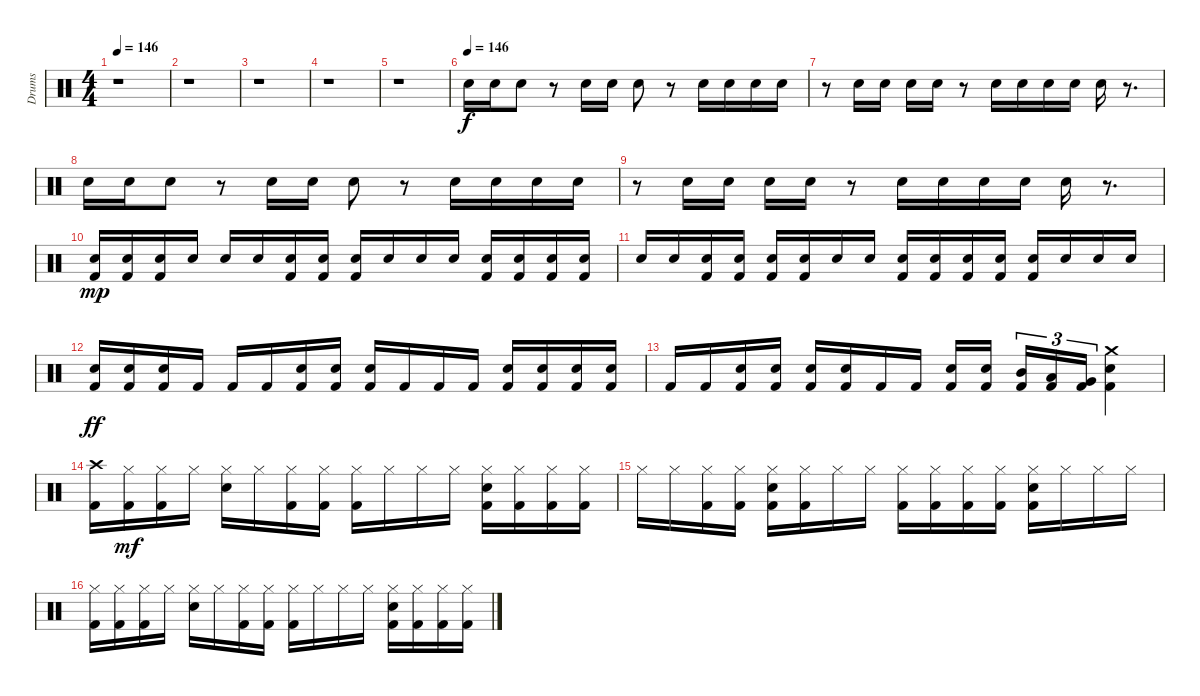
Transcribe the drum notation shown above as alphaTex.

\track ("Drums" "Drums") {instrument percussion}
\staff {score}
\articulation defaults
\ts (4 4)
\tempo 146
\clef neutral
\ks c
r.1{dy f} |
r.1 |
r.1 |
r.1 |
r.1 |
\tempo (146)
"Electric Snare (hit)".16 "Electric Snare (hit)".16 "Electric Snare (hit)".8 r.8 "Electric Snare (hit)".16 "Electric Snare (hit)".16 "Electric Snare (hit)".8 r.8 "Electric Snare (hit)".16 "Electric Snare (hit)".16 "Electric Snare (hit)".16 "Electric Snare (hit)".16 |
r.8 "Electric Snare (hit)".16 "Electric Snare (hit)".16 "Electric Snare (hit)".16 "Electric Snare (hit)".16 r.8 "Electric Snare (hit)".16 "Electric Snare (hit)".16 "Electric Snare (hit)".16 "Electric Snare (hit)".16 "Electric Snare (hit)".16 r.8{d} |
"Electric Snare (hit)".16 "Electric Snare (hit)".16 "Electric Snare (hit)".8 r.8 "Electric Snare (hit)".16 "Electric Snare (hit)".16 "Electric Snare (hit)".8 r.8 "Electric Snare (hit)".16 "Electric Snare (hit)".16 "Electric Snare (hit)".16 "Electric Snare (hit)".16 |
r.8 "Electric Snare (hit)".16 "Electric Snare (hit)".16 "Electric Snare (hit)".16 "Electric Snare (hit)".16 r.8 "Electric Snare (hit)".16 "Electric Snare (hit)".16 "Electric Snare (hit)".16 "Electric Snare (hit)".16 "Electric Snare (hit)".16 r.8{d} |
("Kick (hit) 2" "Snare (hit) 2").16{dy mp} ("Kick (hit) 2" "Snare (hit) 2").16 ("Kick (hit) 2" "Snare (hit) 2").16 "Snare (hit) 2".16 "Snare (hit) 2".16 "Snare (hit) 2".16 ("Kick (hit) 2" "Snare (hit) 2").16 ("Kick (hit) 2" "Snare (hit) 2").16 ("Kick (hit) 2" "Snare (hit) 2").16 "Snare (hit) 2".16 "Snare (hit) 2".16 "Snare (hit) 2".16 ("Kick (hit) 2" "Snare (hit) 2").16 ("Kick (hit) 2" "Snare (hit) 2").16 ("Kick (hit) 2" "Snare (hit) 2").16 ("Kick (hit) 2" "Snare (hit) 2").16 |
"Snare (hit) 2".16 "Snare (hit) 2".16 ("Kick (hit) 2" "Snare (hit) 2").16 ("Kick (hit) 2" "Snare (hit) 2").16 ("Kick (hit) 2" "Snare (hit) 2").16 ("Kick (hit) 2" "Snare (hit) 2").16 "Snare (hit) 2".16 "Snare (hit) 2".16 ("Kick (hit) 2" "Snare (hit) 2").16 ("Kick (hit) 2" "Snare (hit) 2").16 ("Kick (hit) 2" "Snare (hit) 2").16 ("Kick (hit) 2" "Snare (hit) 2").16 ("Kick (hit) 2" "Snare (hit) 2").16 "Snare (hit) 2".16 "Snare (hit) 2".16 "Snare (hit) 2".16 |
("Kick (hit) 2" "Electric Snare (hit)").16{dy ff} ("Kick (hit) 2" "Electric Snare (hit)").16 ("Kick (hit) 2" "Electric Snare (hit)").16 "Kick (hit) 2".16 "Kick (hit) 2".16 "Kick (hit) 2".16 ("Kick (hit) 2" "Electric Snare (hit)").16 ("Kick (hit) 2" "Electric Snare (hit)").16 ("Kick (hit) 2" "Electric Snare (hit)").16 "Kick (hit) 2".16 "Kick (hit) 2".16 "Kick (hit) 2".16 ("Kick (hit) 2" "Electric Snare (hit)").16 ("Kick (hit) 2" "Electric Snare (hit)").16 ("Kick (hit) 2" "Electric Snare (hit)").16 ("Kick (hit) 2" "Electric Snare (hit)").16 |
"Kick (hit) 2".16 "Kick (hit) 2".16 ("Kick (hit) 2" "Electric Snare (hit)").16 ("Kick (hit) 2" "Electric Snare (hit)").16 ("Kick (hit) 2" "Electric Snare (hit)").16 ("Kick (hit) 2" "Electric Snare (hit)").16 "Kick (hit) 2".16 "Kick (hit) 2".16 ("Kick (hit) 2" "Electric Snare (hit)").16 ("Kick (hit) 2" "Electric Snare (hit)").16 ("Kick (hit) 2" "Mid Tom (hit)").16{tu (3 2)} ("Kick (hit) 2" "Low Tom (hit)").16{tu (3 2)} ("Kick (hit) 2" "Very Low Tom (hit)").16{tu (3 2)} ("Kick (hit) 2" "Electric Snare (hit)" "Crash medium (hit)").4 |
("Kick (hit) 2" "Crash high (hit)").16 ("Kick (hit) 2" "Hi-Hat (closed)").16{dy mf} ("Kick (hit) 2" "Hi-Hat (closed)").16 "Hi-Hat (closed)".16 ("Electric Snare (hit)" "Hi-Hat (closed)").16 "Hi-Hat (closed)".16 ("Kick (hit) 2" "Hi-Hat (closed)").16 ("Kick (hit) 2" "Hi-Hat (closed)").16 ("Kick (hit) 2" "Hi-Hat (closed)").16 "Hi-Hat (closed)".16 "Hi-Hat (closed)".16 "Hi-Hat (closed)".16 ("Kick (hit) 2" "Electric Snare (hit)" "Hi-Hat (closed)").16 ("Kick (hit) 2" "Hi-Hat (closed)").16 ("Kick (hit) 2" "Hi-Hat (closed)").16 ("Kick (hit) 2" "Hi-Hat (closed)").16 |
"Hi-Hat (closed)".16 "Hi-Hat (closed)".16 ("Kick (hit) 2" "Hi-Hat (closed)").16 ("Kick (hit) 2" "Hi-Hat (closed)").16 ("Kick (hit) 2" "Electric Snare (hit)" "Hi-Hat (closed)").16 ("Kick (hit) 2" "Hi-Hat (closed)").16 "Hi-Hat (closed)".16 "Hi-Hat (closed)".16 ("Kick (hit) 2" "Hi-Hat (closed)").16 ("Kick (hit) 2" "Hi-Hat (closed)").16 ("Kick (hit) 2" "Hi-Hat (closed)").16 ("Kick (hit) 2" "Hi-Hat (closed)").16 ("Kick (hit) 2" "Electric Snare (hit)" "Hi-Hat (closed)").16 "Hi-Hat (closed)".16 "Hi-Hat (closed)".16 "Hi-Hat (closed)".16 |
("Kick (hit) 2" "Hi-Hat (closed)").16 ("Kick (hit) 2" "Hi-Hat (closed)").16 ("Kick (hit) 2" "Hi-Hat (closed)").16 "Hi-Hat (closed)".16 ("Electric Snare (hit)" "Hi-Hat (closed)").16 "Hi-Hat (closed)".16 ("Kick (hit) 2" "Hi-Hat (closed)").16 ("Kick (hit) 2" "Hi-Hat (closed)").16 ("Kick (hit) 2" "Hi-Hat (closed)").16 "Hi-Hat (closed)".16 "Hi-Hat (closed)".16 "Hi-Hat (closed)".16 ("Kick (hit) 2" "Electric Snare (hit)" "Hi-Hat (closed)").16 ("Kick (hit) 2" "Hi-Hat (closed)").16 ("Kick (hit) 2" "Hi-Hat (closed)").16 ("Kick (hit) 2" "Hi-Hat (closed)").16
